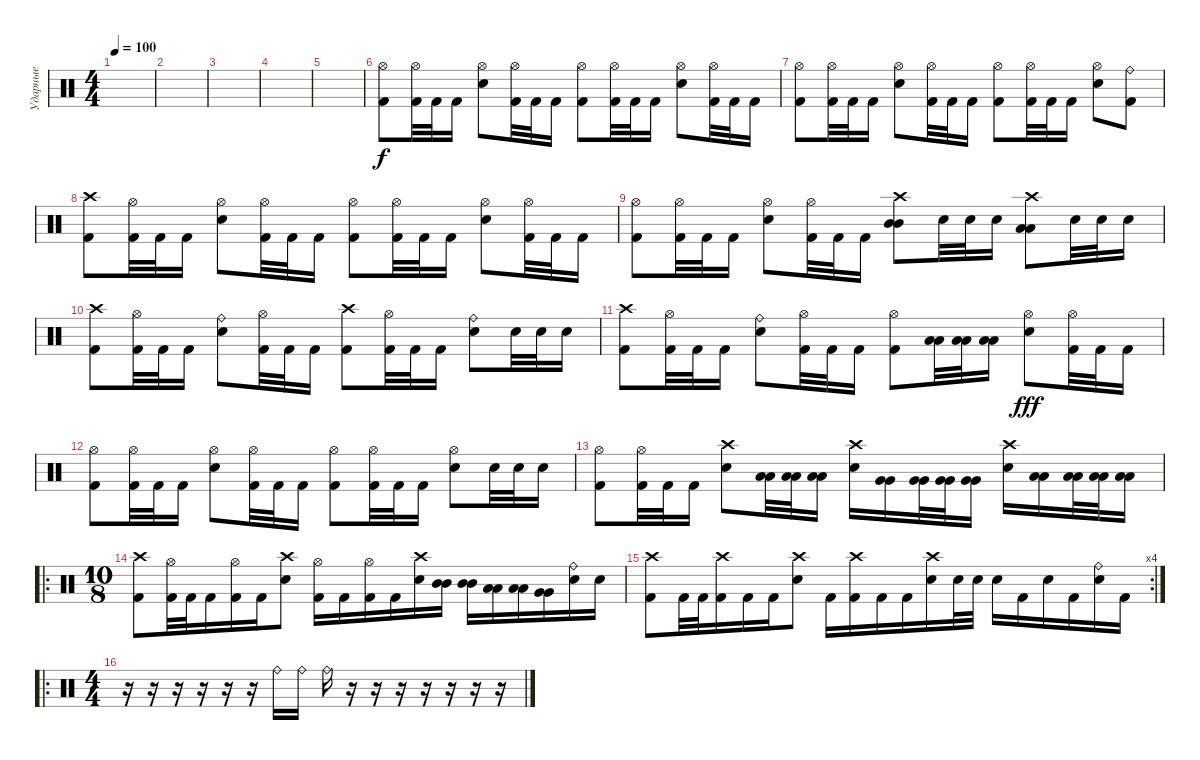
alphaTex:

\track ("Ударные" "Ударные") {instrument percussion}
\staff {score}
\articulation defaults
\ts (4 4)
\tempo 100
\clef neutral
\ks c
|
|
|
|
|
("Hi-Hat (open)" "Kick (hit) 2").8 ("Hi-Hat (open)" "Kick (hit) 2").32 "Kick (hit) 2".32 "Kick (hit) 2".16 ("Hi-Hat (open)" "Electric Snare (hit)").8 ("Hi-Hat (open)" "Kick (hit) 2").32 "Kick (hit) 2".32 "Kick (hit) 2".16 ("Hi-Hat (open)" "Kick (hit) 2").8 ("Hi-Hat (open)" "Kick (hit) 2").32 "Kick (hit) 2".32 "Kick (hit) 2".16 ("Hi-Hat (open)" "Electric Snare (hit)").8 ("Hi-Hat (open)" "Kick (hit) 2").32 "Kick (hit) 2".32 "Kick (hit) 2".16 |
("Hi-Hat (open)" "Kick (hit) 2").8 ("Hi-Hat (open)" "Kick (hit) 2").32 "Kick (hit) 2".32 "Kick (hit) 2".16 ("Hi-Hat (open)" "Electric Snare (hit)").8 ("Hi-Hat (open)" "Kick (hit) 2").32 "Kick (hit) 2".32 "Kick (hit) 2".16 ("Hi-Hat (open)" "Kick (hit) 2").8 ("Hi-Hat (open)" "Kick (hit) 2").32 "Kick (hit) 2".32 "Kick (hit) 2".16 ("Hi-Hat (open)" "Electric Snare (hit)").8 ("Ride (bell)" "Kick (hit) 2").8 |
("Crash high (hit)" "Kick (hit) 2").8 ("Hi-Hat (open)" "Kick (hit) 2").32 "Kick (hit) 2".32 "Kick (hit) 2".16 ("Hi-Hat (open)" "Electric Snare (hit)").8 ("Hi-Hat (open)" "Kick (hit) 2").32 "Kick (hit) 2".32 "Kick (hit) 2".16 ("Hi-Hat (open)" "Kick (hit) 2").8 ("Hi-Hat (open)" "Kick (hit) 2").32 "Kick (hit) 2".32 "Kick (hit) 2".16 ("Hi-Hat (open)" "Electric Snare (hit)").8 ("Hi-Hat (open)" "Kick (hit) 2").32 "Kick (hit) 2".32 "Kick (hit) 2".16 |
("Hi-Hat (open)" "Kick (hit) 2").8 ("Hi-Hat (open)" "Kick (hit) 2").32 "Kick (hit) 2".32 "Kick (hit) 2".16 ("Hi-Hat (open)" "Electric Snare (hit)").8 ("Hi-Hat (open)" "Kick (hit) 2").32 "Kick (hit) 2".32 "Kick (hit) 2".16 ("Crash high (hit)" "Mid Tom (hit)" "Mid Tom (hit)").8 "Electric Snare (hit)".32 "Electric Snare (hit)".32 "Electric Snare (hit)".16 ("Crash high (hit)" "Low Tom (hit)" "Low Tom (hit)").8 "Electric Snare (hit)".32 "Electric Snare (hit)".32 "Electric Snare (hit)".16 |
("Crash high (hit)" "Kick (hit) 2").8 ("Hi-Hat (open)" "Kick (hit) 2").32 "Kick (hit) 2".32 "Kick (hit) 2".16 ("Ride (bell)" "Electric Snare (hit)").8 ("Hi-Hat (open)" "Kick (hit) 2").32 "Kick (hit) 2".32 "Kick (hit) 2".16 ("Crash high (hit)" "Kick (hit) 2").8 ("Hi-Hat (open)" "Kick (hit) 2").32 "Kick (hit) 2".32 "Kick (hit) 2".16 ("Ride (bell)" "Electric Snare (hit)").8 "Electric Snare (hit)".32 "Electric Snare (hit)".32 "Electric Snare (hit)".16 |
("Crash high (hit)" "Kick (hit) 2").8 ("Hi-Hat (open)" "Kick (hit) 2").32 "Kick (hit) 2".32 "Kick (hit) 2".16 ("Ride (bell)" "Electric Snare (hit)").8 ("Hi-Hat (open)" "Kick (hit) 2").32 "Kick (hit) 2".32 "Kick (hit) 2".16 ("Hi-Hat (open)" "Kick (hit) 2").8 ("Low Floor Tom (hit)" "Low Floor Tom (hit)").32{dy f} ("Low Floor Tom (hit)" "Low Floor Tom (hit)").32 ("Low Floor Tom (hit)" "Low Floor Tom (hit)").16 ("Hi-Hat (open)" "Electric Snare (hit)").8{dy fff} ("Hi-Hat (open)" "Kick (hit) 2").32 "Kick (hit) 2".32 "Kick (hit) 2".16 |
("Hi-Hat (open)" "Kick (hit) 2").8 ("Hi-Hat (open)" "Kick (hit) 2").32 "Kick (hit) 2".32 "Kick (hit) 2".16 ("Hi-Hat (open)" "Electric Snare (hit)").8 ("Hi-Hat (open)" "Kick (hit) 2").32 "Kick (hit) 2".32 "Kick (hit) 2".16 ("Hi-Hat (open)" "Kick (hit) 2").8 ("Hi-Hat (open)" "Kick (hit) 2").32 "Kick (hit) 2".32 "Kick (hit) 2".16 ("Hi-Hat (open)" "Electric Snare (hit)").8 "Electric Snare (hit)".32 "Electric Snare (hit)".32 "Electric Snare (hit)".16 |
("Hi-Hat (open)" "Kick (hit) 2").8 ("Hi-Hat (open)" "Kick (hit) 2").32 "Kick (hit) 2".32 "Kick (hit) 2".16 ("Crash high (hit)" "Electric Snare (hit)").8 ("Low Tom (hit)" "Low Tom (hit)").32 ("Low Tom (hit)" "Low Tom (hit)").32 ("Low Tom (hit)" "Low Tom (hit)").16 ("Crash high (hit)" "Electric Snare (hit)").16 ("Very Low Tom (hit)" "Very Low Tom (hit)").16 ("Very Low Tom (hit)" "Very Low Tom (hit)").32 ("Very Low Tom (hit)" "Very Low Tom (hit)").32 ("Very Low Tom (hit)" "Very Low Tom (hit)").16 ("Crash high (hit)" "Electric Snare (hit)").16 ("Low Floor Tom (hit)" "Low Floor Tom (hit)").16 ("Low Floor Tom (hit)" "Low Floor Tom (hit)").32 ("Low Floor Tom (hit)" "Low Floor Tom (hit)").32 ("Low Floor Tom (hit)" "Low Floor Tom (hit)").16 |
\ro
\ts (10 8)
("Crash high (hit)" "Kick (hit) 2").8 ("Hi-Hat (open)" "Kick (hit) 2").32 "Kick (hit) 2".32 "Kick (hit) 2".16 ("Hi-Hat (open)" "Kick (hit) 2").16 "Kick (hit) 2".16 ("Crash high (hit)" "Electric Snare (hit)").8 ("Hi-Hat (open)" "Kick (hit) 2").16 "Kick (hit) 2".16 ("Hi-Hat (open)" "Kick (hit) 2").16 "Kick (hit) 2".16 ("Crash high (hit)" "Electric Snare (hit)").16 ("Mid Tom (hit)" "Mid Tom (hit)").16 ("Mid Tom (hit)" "Mid Tom (hit)").16 ("Low Tom (hit)" "Low Tom (hit)").16 ("Low Tom (hit)" "Low Tom (hit)").16 ("Very Low Tom (hit)" "Very Low Tom (hit)").16 ("Ride (bell)" "Electric Snare (hit)").16 "Electric Snare (hit)".16 |
\rc 4
("Crash high (hit)" "Kick (hit) 2").8 "Kick (hit) 2".32 "Kick (hit) 2".32 ("Crash high (hit)" "Kick (hit) 2").16 "Kick (hit) 2".16 "Kick (hit) 2".16 ("Crash high (hit)" "Electric Snare (hit)").8 "Kick (hit) 2".16 ("Crash high (hit)" "Kick (hit) 2").16 "Kick (hit) 2".16 "Kick (hit) 2".16 ("Crash high (hit)" "Electric Snare (hit)").16 "Electric Snare (hit)".32 "Electric Snare (hit)".32 "Electric Snare (hit)".16 "Kick (hit) 2".16 "Electric Snare (hit)".16 "Kick (hit) 2".16 ("Ride (bell)" "Electric Snare (hit)").16 "Kick (hit) 2".16 |
\ro
\ts (4 4)
r.16 r.16 r.16 r.16 r.16 r.16 "Ride (bell)".16 "Ride (bell)".16 "Ride (bell)".16 r.16 r.16 r.16 r.16 r.16 r.16 r.16
